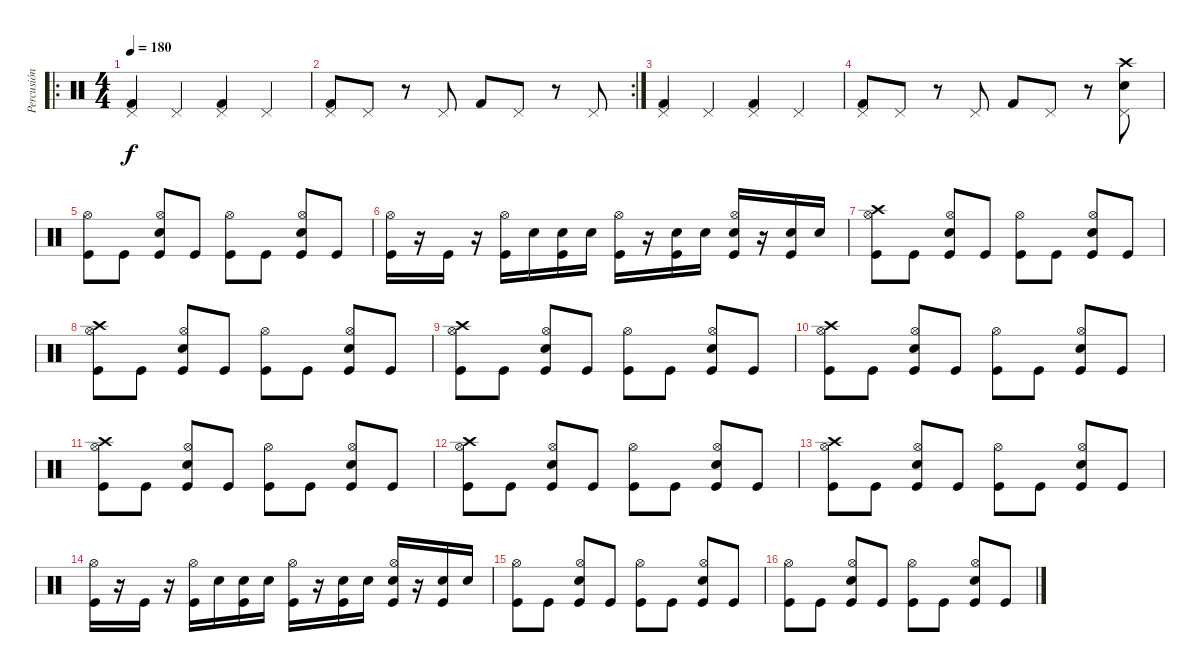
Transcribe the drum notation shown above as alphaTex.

\track ("Percusión" "Percusión") {instrument percussion}
\staff {score}
\articulation defaults
\ro
\ts (4 4)
\tempo 180
\clef neutral
\ks c
("Pedal Hi-Hat (hit)" "Kick (hit) 2").4{dy f} "Pedal Hi-Hat (hit)".4 ("Pedal Hi-Hat (hit)" "Kick (hit) 2").4 "Pedal Hi-Hat (hit)".4 |
\rc 2
("Pedal Hi-Hat (hit)" "Kick (hit) 2").8 "Pedal Hi-Hat (hit)".8 r.8 "Pedal Hi-Hat (hit)".8 "Kick (hit) 2".8 "Pedal Hi-Hat (hit)".8 r.8 "Pedal Hi-Hat (hit)".8 |
("Pedal Hi-Hat (hit)" "Kick (hit) 2").4 "Pedal Hi-Hat (hit)".4 ("Pedal Hi-Hat (hit)" "Kick (hit) 2").4 "Pedal Hi-Hat (hit)".4 |
("Pedal Hi-Hat (hit)" "Kick (hit) 2").8 "Pedal Hi-Hat (hit)".8 r.8 "Pedal Hi-Hat (hit)".8 "Kick (hit) 2".8 "Pedal Hi-Hat (hit)".8 r.8 ("Electric Snare (hit)" "Crash high (hit)" "Pedal Hi-Hat (hit)").8 |
("Hi-Hat (open)" "Kick (hit)").8 "Kick (hit)".8 ("Hi-Hat (open)" "Electric Snare (hit)" "Kick (hit)").8 "Kick (hit)".8 ("Hi-Hat (open)" "Kick (hit)").8 "Kick (hit)".8 ("Hi-Hat (open)" "Electric Snare (hit)" "Kick (hit)").8 "Kick (hit)".8 |
("Hi-Hat (open)" "Kick (hit)").16 r.16 "Kick (hit)".16 r.16 ("Hi-Hat (open)" "Kick (hit)").16 "Electric Snare (hit)".16 ("Electric Snare (hit)" "Kick (hit)").16 "Electric Snare (hit)".16 ("Hi-Hat (open)" "Kick (hit)").16 r.16 ("Electric Snare (hit)" "Kick (hit)").16 "Electric Snare (hit)".16 ("Hi-Hat (open)" "Electric Snare (hit)" "Kick (hit)").16 r.16 ("Electric Snare (hit)" "Kick (hit)").16 "Electric Snare (hit)".16 |
("Crash high (hit)" "Hi-Hat (open)" "Kick (hit)").8 "Kick (hit)".8 ("Hi-Hat (open)" "Electric Snare (hit)" "Kick (hit)").8 "Kick (hit)".8 ("Hi-Hat (open)" "Kick (hit)").8 "Kick (hit)".8 ("Hi-Hat (open)" "Electric Snare (hit)" "Kick (hit)").8 "Kick (hit)".8 |
("Crash high (hit)" "Hi-Hat (open)" "Kick (hit)").8 "Kick (hit)".8 ("Hi-Hat (open)" "Electric Snare (hit)" "Kick (hit)").8 "Kick (hit)".8 ("Hi-Hat (open)" "Kick (hit)").8 "Kick (hit)".8 ("Hi-Hat (open)" "Electric Snare (hit)" "Kick (hit)").8 "Kick (hit)".8 |
("Crash high (hit)" "Hi-Hat (open)" "Kick (hit)").8 "Kick (hit)".8 ("Hi-Hat (open)" "Electric Snare (hit)" "Kick (hit)").8 "Kick (hit)".8 ("Hi-Hat (open)" "Kick (hit)").8 "Kick (hit)".8 ("Hi-Hat (open)" "Electric Snare (hit)" "Kick (hit)").8 "Kick (hit)".8 |
("Crash high (hit)" "Hi-Hat (open)" "Kick (hit)").8 "Kick (hit)".8 ("Hi-Hat (open)" "Electric Snare (hit)" "Kick (hit)").8 "Kick (hit)".8 ("Hi-Hat (open)" "Kick (hit)").8 "Kick (hit)".8 ("Hi-Hat (open)" "Electric Snare (hit)" "Kick (hit)").8 "Kick (hit)".8 |
("Crash high (hit)" "Hi-Hat (open)" "Kick (hit)").8 "Kick (hit)".8 ("Hi-Hat (open)" "Electric Snare (hit)" "Kick (hit)").8 "Kick (hit)".8 ("Hi-Hat (open)" "Kick (hit)").8 "Kick (hit)".8 ("Hi-Hat (open)" "Electric Snare (hit)" "Kick (hit)").8 "Kick (hit)".8 |
("Crash high (hit)" "Hi-Hat (open)" "Kick (hit)").8 "Kick (hit)".8 ("Hi-Hat (open)" "Electric Snare (hit)" "Kick (hit)").8 "Kick (hit)".8 ("Hi-Hat (open)" "Kick (hit)").8 "Kick (hit)".8 ("Hi-Hat (open)" "Electric Snare (hit)" "Kick (hit)").8 "Kick (hit)".8 |
("Crash high (hit)" "Hi-Hat (open)" "Kick (hit)").8 "Kick (hit)".8 ("Hi-Hat (open)" "Electric Snare (hit)" "Kick (hit)").8 "Kick (hit)".8 ("Hi-Hat (open)" "Kick (hit)").8 "Kick (hit)".8 ("Hi-Hat (open)" "Electric Snare (hit)" "Kick (hit)").8 "Kick (hit)".8 |
("Hi-Hat (open)" "Kick (hit)").16 r.16 "Kick (hit)".16 r.16 ("Hi-Hat (open)" "Kick (hit)").16 "Electric Snare (hit)".16 ("Electric Snare (hit)" "Kick (hit)").16 "Electric Snare (hit)".16 ("Hi-Hat (open)" "Kick (hit)").16 r.16 ("Electric Snare (hit)" "Kick (hit)").16 "Electric Snare (hit)".16 ("Hi-Hat (open)" "Electric Snare (hit)" "Kick (hit)").16 r.16 ("Electric Snare (hit)" "Kick (hit)").16 "Electric Snare (hit)".16 |
("Hi-Hat (open)" "Kick (hit)").8 "Kick (hit)".8 ("Hi-Hat (open)" "Electric Snare (hit)" "Kick (hit)").8 "Kick (hit)".8 ("Hi-Hat (open)" "Kick (hit)").8 "Kick (hit)".8 ("Hi-Hat (open)" "Electric Snare (hit)" "Kick (hit)").8 "Kick (hit)".8 |
("Hi-Hat (open)" "Kick (hit)").8 "Kick (hit)".8 ("Hi-Hat (open)" "Electric Snare (hit)" "Kick (hit)").8 "Kick (hit)".8 ("Hi-Hat (open)" "Kick (hit)").8 "Kick (hit)".8 ("Hi-Hat (open)" "Electric Snare (hit)" "Kick (hit)").8 "Kick (hit)".8
